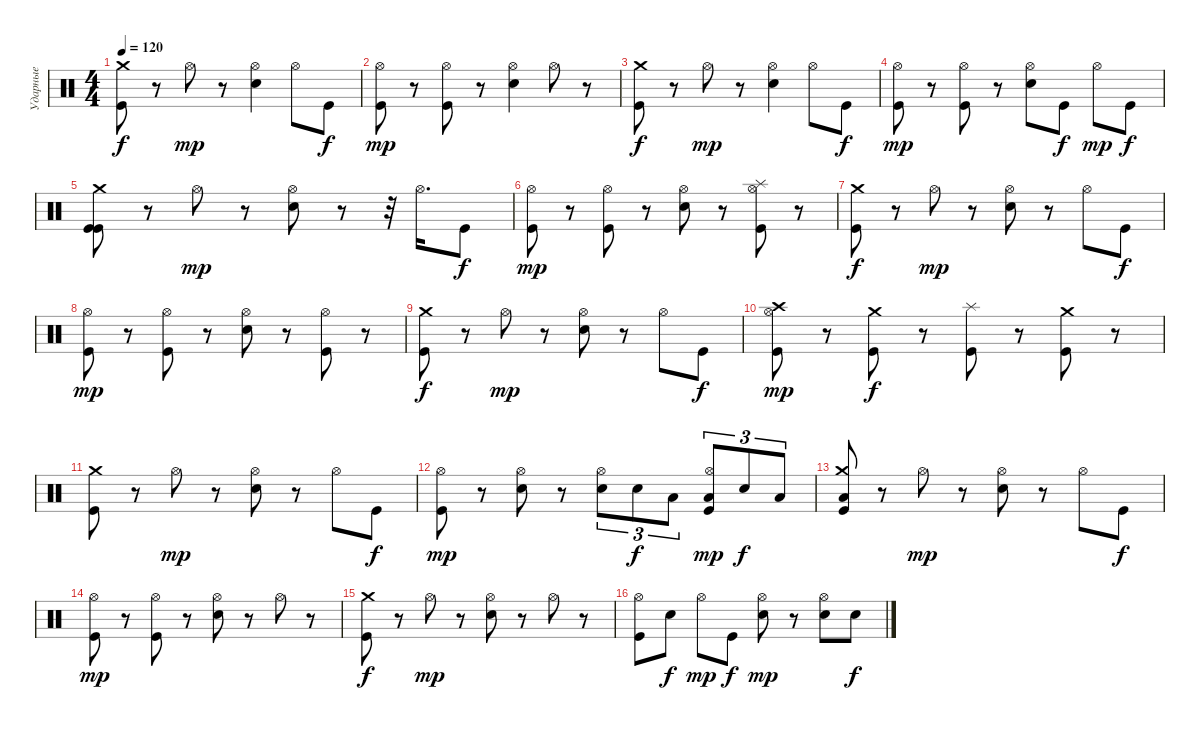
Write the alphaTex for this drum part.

\track ("Ударные" "Ударные") {instrument percussion}
\staff {score}
\articulation defaults
\ts (4 4)
\tempo 120
\clef neutral
\ks c
("Kick (hit)" "Crash medium (hit)").8{dy f} r.8 "Hi-Hat (open)".8{dy mp} r.8 ("Snare (hit) 2" "Hi-Hat (open)").4 "Hi-Hat (open)".8 "Kick (hit)".8{dy f} |
("Kick (hit)" "Hi-Hat (open)").8{dy mp} r.8 ("Kick (hit)" "Hi-Hat (open)").8 r.8 ("Snare (hit) 2" "Hi-Hat (open)").4 "Hi-Hat (open)".8 r.8 |
("Kick (hit)" "Crash medium (hit)").8{dy f} r.8 "Hi-Hat (open)".8{dy mp} r.8 ("Snare (hit) 2" "Hi-Hat (open)").4 "Hi-Hat (open)".8 "Kick (hit)".8{dy f} |
("Kick (hit)" "Hi-Hat (open)").8{dy mp} r.8 ("Kick (hit)" "Hi-Hat (open)").8 r.8 ("Snare (hit) 2" "Hi-Hat (open)").8 "Kick (hit)".8{dy f} "Hi-Hat (open)".8{dy mp} "Kick (hit)".8{dy f} |
("Crash medium (hit)" "Kick (hit)" "Kick (hit)").8 r.8 "Hi-Hat (open)".8{dy mp} r.8 ("Snare (hit) 2" "Hi-Hat (open)").8 r.8 r.32 "Hi-Hat (open)".16{d} "Kick (hit)".8{dy f} |
("Kick (hit)" "Hi-Hat (open)").8{dy mp} r.8 ("Kick (hit)" "Hi-Hat (open)").8 r.8 ("Snare (hit) 2" "Hi-Hat (open)").8 r.8 ("Splash (hit)" "Kick (hit)" "Hi-Hat (open)").8 r.8 |
("Kick (hit)" "Crash medium (hit)").8{dy f} r.8 "Hi-Hat (open)".8{dy mp} r.8 ("Snare (hit) 2" "Hi-Hat (open)").8 r.8 "Hi-Hat (open)".8 "Kick (hit)".8{dy f} |
("Kick (hit)" "Hi-Hat (open)").8{dy mp} r.8 ("Kick (hit)" "Hi-Hat (open)").8 r.8 ("Snare (hit) 2" "Hi-Hat (open)").8 r.8 ("Kick (hit)" "Hi-Hat (open)").8 r.8 |
("Crash medium (hit)" "Kick (hit)").8{dy f} r.8 "Hi-Hat (open)".8{dy mp} r.8 ("Snare (hit) 2" "Hi-Hat (open)").8 r.8 "Hi-Hat (open)".8 "Kick (hit)".8{dy f} |
("Crash high (hit)" "Kick (hit)" "Hi-Hat (open)").8{dy mp} r.8 ("Crash medium (hit)" "Kick (hit)").8{dy f} r.8 ("Splash (hit)" "Kick (hit)").8 r.8 ("Crash medium (hit)" "Kick (hit)").8 r.8 |
("Crash medium (hit)" "Kick (hit)").8 r.8 "Hi-Hat (open)".8{dy mp} r.8 ("Snare (hit) 2" "Hi-Hat (open)").8 r.8 "Hi-Hat (open)".8 "Kick (hit)".8{dy f} |
("Kick (hit)" "Hi-Hat (open)").8{dy mp} r.8 ("Snare (hit) 2" "Hi-Hat (open)").8 r.8 ("Snare (hit) 2" "Hi-Hat (open)").8{tu (3 2)} "Snare (hit) 2".8{tu (3 2) dy f} "Low Floor Tom (hit)".8{tu (3 2)} ("Kick (hit)" "Low Floor Tom (hit)" "Hi-Hat (open)").8{tu (3 2) dy mp} "Snare (hit) 2".8{tu (3 2) dy f} "Low Floor Tom (hit)".8{tu (3 2)} |
("Crash medium (hit)" "Low Floor Tom (hit)" "Kick (hit)").8 r.8 "Hi-Hat (open)".8{dy mp} r.8 ("Snare (hit) 2" "Hi-Hat (open)").8 r.8 "Hi-Hat (open)".8 "Kick (hit)".8{dy f} |
("Kick (hit)" "Hi-Hat (open)").8{dy mp} r.8 ("Kick (hit)" "Hi-Hat (open)").8 r.8 ("Snare (hit) 2" "Hi-Hat (open)").8 r.8 "Hi-Hat (open)".8 r.8 |
("Crash medium (hit)" "Kick (hit)").8{dy f} r.8 "Hi-Hat (open)".8{dy mp} r.8 ("Snare (hit) 2" "Hi-Hat (open)").8 r.8 "Hi-Hat (open)".8 r.8 |
("Kick (hit)" "Hi-Hat (open)").8 "Snare (hit) 2".8{dy f} "Hi-Hat (open)".8{dy mp} "Kick (hit)".8{dy f} ("Snare (hit) 2" "Hi-Hat (open)").8{dy mp} r.8 ("Snare (hit) 2" "Hi-Hat (open)").8 "Snare (hit) 2".8{dy f}
